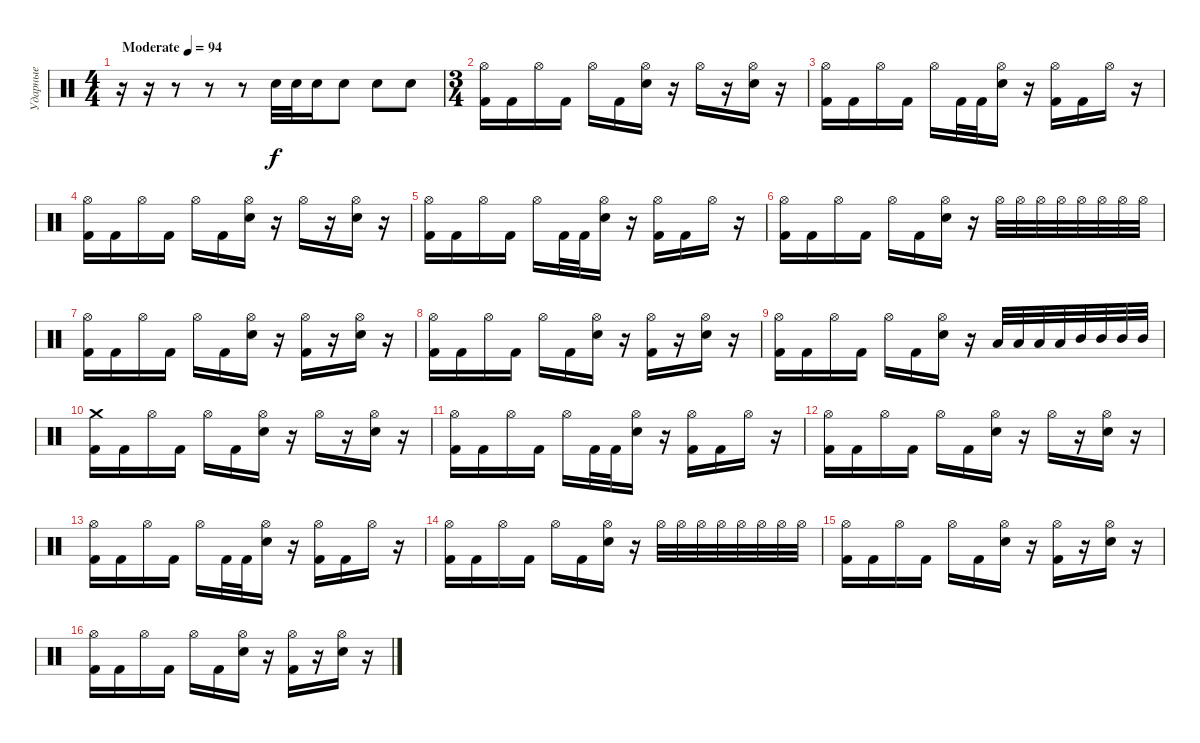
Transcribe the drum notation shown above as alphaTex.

\track ("Ударные" "Ударные") {instrument percussion}
\staff {score}
\articulation defaults
\ts (4 4)
\tempo (94 "Moderate")
\clef neutral
\ks c
r.16{dy f} r.16 r.8 r.8 r.8 "Electric Snare (hit)".32 "Electric Snare (hit)".32 "Electric Snare (hit)".16 "Electric Snare (hit)".8 "Electric Snare (hit)".8 "Electric Snare (hit)".8 |
\ts (3 4)
("Hi-Hat (open)" "Kick (hit) 2").16 "Kick (hit) 2".16 "Hi-Hat (open)".16 "Kick (hit) 2".16 "Hi-Hat (open)".16 "Kick (hit) 2".16 ("Hi-Hat (open)" "Electric Snare (hit)").16 r.16 "Hi-Hat (open)".16 r.16 ("Hi-Hat (open)" "Electric Snare (hit)").16 r.16 |
("Hi-Hat (open)" "Kick (hit) 2").16 "Kick (hit) 2".16 "Hi-Hat (open)".16 "Kick (hit) 2".16 "Hi-Hat (open)".16 "Kick (hit) 2".32 "Kick (hit) 2".32 ("Hi-Hat (open)" "Electric Snare (hit)").16 r.16 ("Hi-Hat (open)" "Kick (hit) 2").16 "Kick (hit) 2".16 "Hi-Hat (open)".16 r.16 |
("Hi-Hat (open)" "Kick (hit) 2").16 "Kick (hit) 2".16 "Hi-Hat (open)".16 "Kick (hit) 2".16 "Hi-Hat (open)".16 "Kick (hit) 2".16 ("Hi-Hat (open)" "Electric Snare (hit)").16 r.16 "Hi-Hat (open)".16 r.16 ("Hi-Hat (open)" "Electric Snare (hit)").16 r.16 |
("Hi-Hat (open)" "Kick (hit) 2").16 "Kick (hit) 2".16 "Hi-Hat (open)".16 "Kick (hit) 2".16 "Hi-Hat (open)".16 "Kick (hit) 2".32 "Kick (hit) 2".32 ("Hi-Hat (open)" "Electric Snare (hit)").16 r.16 ("Hi-Hat (open)" "Kick (hit) 2").16 "Kick (hit) 2".16 "Hi-Hat (open)".16 r.16 |
("Hi-Hat (open)" "Kick (hit) 2").16 "Kick (hit) 2".16 "Hi-Hat (open)".16 "Kick (hit) 2".16 "Hi-Hat (open)".16 "Kick (hit) 2".16 ("Hi-Hat (open)" "Electric Snare (hit)").16 r.16 "Hi-Hat (open)".32 "Hi-Hat (open)".32 "Hi-Hat (open)".32 "Hi-Hat (open)".32 "Hi-Hat (open)".32 "Hi-Hat (open)".32 "Hi-Hat (open)".32 "Hi-Hat (open)".32 |
("Hi-Hat (open)" "Kick (hit) 2").16 "Kick (hit) 2".16 "Hi-Hat (open)".16 "Kick (hit) 2".16 "Hi-Hat (open)".16 "Kick (hit) 2".16 ("Hi-Hat (open)" "Electric Snare (hit)").16 r.16 ("Hi-Hat (open)" "Kick (hit) 2").16 r.16 ("Hi-Hat (open)" "Electric Snare (hit)").16 r.16 |
("Hi-Hat (open)" "Kick (hit) 2").16 "Kick (hit) 2".16 "Hi-Hat (open)".16 "Kick (hit) 2".16 "Hi-Hat (open)".16 "Kick (hit) 2".16 ("Hi-Hat (open)" "Electric Snare (hit)").16 r.16 ("Hi-Hat (open)" "Kick (hit) 2").16 r.16 ("Hi-Hat (open)" "Electric Snare (hit)").16 r.16 |
("Hi-Hat (open)" "Kick (hit) 2").16 "Kick (hit) 2".16 "Hi-Hat (open)".16 "Kick (hit) 2".16 "Hi-Hat (open)".16 "Kick (hit) 2".16 ("Hi-Hat (open)" "Electric Snare (hit)").16 r.16 "Low Tom (hit)".32 "Low Tom (hit)".32 "Low Tom (hit)".32 "Low Tom (hit)".32 "Mid Tom (hit)".32 "Mid Tom (hit)".32 "Mid Tom (hit)".32 "Mid Tom (hit)".32 |
("Crash medium (hit)" "Kick (hit) 2").16 "Kick (hit) 2".16 "Hi-Hat (open)".16 "Kick (hit) 2".16 "Hi-Hat (open)".16 "Kick (hit) 2".16 ("Hi-Hat (open)" "Electric Snare (hit)").16 r.16 "Hi-Hat (open)".16 r.16 ("Hi-Hat (open)" "Electric Snare (hit)").16 r.16 |
("Hi-Hat (open)" "Kick (hit) 2").16 "Kick (hit) 2".16 "Hi-Hat (open)".16 "Kick (hit) 2".16 "Hi-Hat (open)".16 "Kick (hit) 2".32 "Kick (hit) 2".32 ("Hi-Hat (open)" "Electric Snare (hit)").16 r.16 ("Hi-Hat (open)" "Kick (hit) 2").16 "Kick (hit) 2".16 "Hi-Hat (open)".16 r.16 |
("Hi-Hat (open)" "Kick (hit) 2").16 "Kick (hit) 2".16 "Hi-Hat (open)".16 "Kick (hit) 2".16 "Hi-Hat (open)".16 "Kick (hit) 2".16 ("Hi-Hat (open)" "Electric Snare (hit)").16 r.16 "Hi-Hat (open)".16 r.16 ("Hi-Hat (open)" "Electric Snare (hit)").16 r.16 |
("Hi-Hat (open)" "Kick (hit) 2").16 "Kick (hit) 2".16 "Hi-Hat (open)".16 "Kick (hit) 2".16 "Hi-Hat (open)".16 "Kick (hit) 2".32 "Kick (hit) 2".32 ("Hi-Hat (open)" "Electric Snare (hit)").16 r.16 ("Hi-Hat (open)" "Kick (hit) 2").16 "Kick (hit) 2".16 "Hi-Hat (open)".16 r.16 |
("Hi-Hat (open)" "Kick (hit) 2").16 "Kick (hit) 2".16 "Hi-Hat (open)".16 "Kick (hit) 2".16 "Hi-Hat (open)".16 "Kick (hit) 2".16 ("Hi-Hat (open)" "Electric Snare (hit)").16 r.16 "Hi-Hat (open)".32 "Hi-Hat (open)".32 "Hi-Hat (open)".32 "Hi-Hat (open)".32 "Hi-Hat (open)".32 "Hi-Hat (open)".32 "Hi-Hat (open)".32 "Hi-Hat (open)".32 |
("Hi-Hat (open)" "Kick (hit) 2").16 "Kick (hit) 2".16 "Hi-Hat (open)".16 "Kick (hit) 2".16 "Hi-Hat (open)".16 "Kick (hit) 2".16 ("Hi-Hat (open)" "Electric Snare (hit)").16 r.16 ("Hi-Hat (open)" "Kick (hit) 2").16 r.16 ("Hi-Hat (open)" "Electric Snare (hit)").16 r.16 |
("Hi-Hat (open)" "Kick (hit) 2").16 "Kick (hit) 2".16 "Hi-Hat (open)".16 "Kick (hit) 2".16 "Hi-Hat (open)".16 "Kick (hit) 2".16 ("Hi-Hat (open)" "Electric Snare (hit)").16 r.16 ("Hi-Hat (open)" "Kick (hit) 2").16 r.16 ("Hi-Hat (open)" "Electric Snare (hit)").16 r.16
